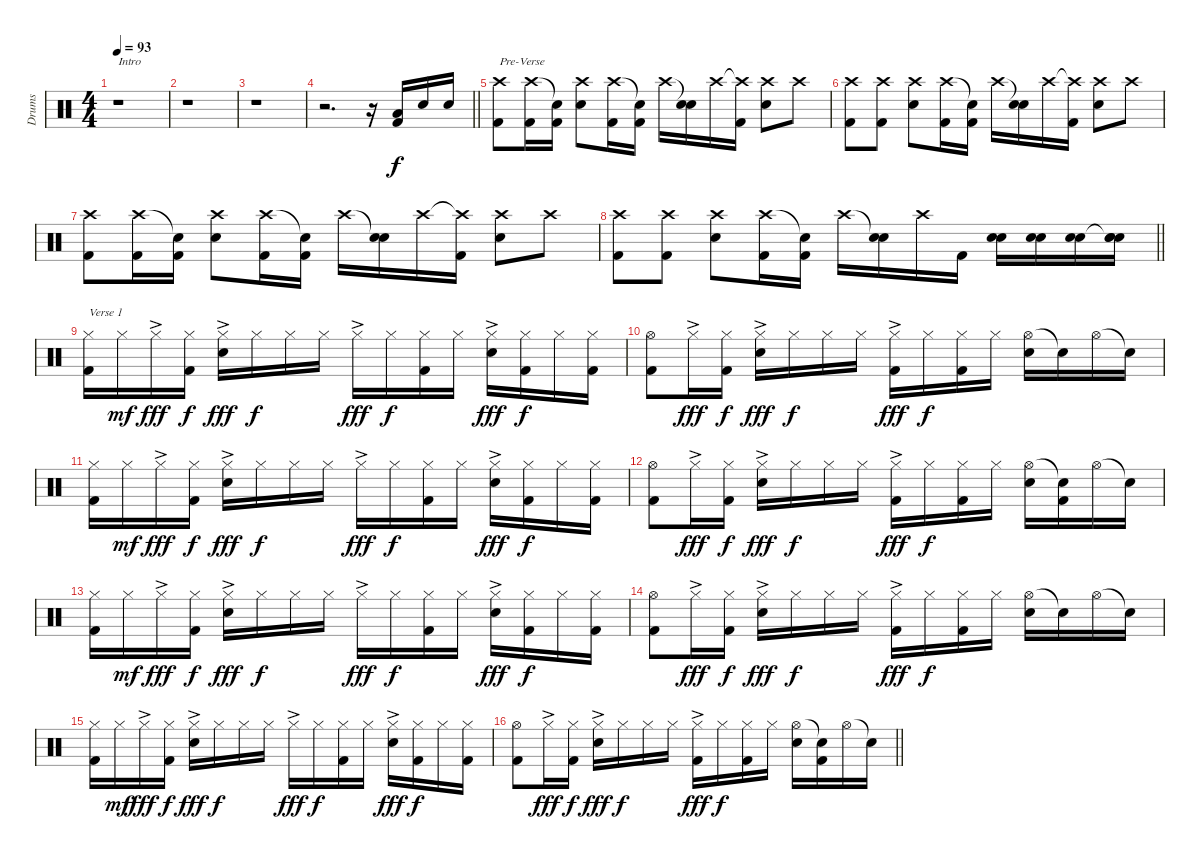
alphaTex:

\track ("Drums" "Drums") {instrument percussion}
\staff {score}
\articulation defaults
\ts (4 4)
\tempo 93
\clef neutral
\ks c
r.1{txt "Intro" dy f} |
r.1 |
r.1 |
\barLineRight lightlight
r.2{d} r.16 ("Low Floor Tom (hit)" "Kick (hit) 2").16 "Electric Snare (hit)".16 "Electric Snare (hit)".16 |
("Crash high (hit)" "Kick (hit) 2").8{txt "Pre-Verse"} ("Crash high (hit)" "Kick (hit) 2").16 ("Snare (hit)"{t} "Kick (hit) 2").16 ("Crash high (hit)" "Electric Snare (hit)").8 ("Crash high (hit)" "Kick (hit) 2").16 ("Snare (hit)"{t} "Kick (hit) 2").16 "Crash high (hit)".16 ("Snare (hit)"{t} "Electric Snare (hit)").16 "Crash high (hit)".16 ("Crash high (hit)"{t} "Kick (hit) 2").16 ("Crash high (hit)" "Electric Snare (hit)").8 "Crash high (hit)".8 |
("Crash high (hit)" "Kick (hit) 2").8 ("Crash high (hit)" "Kick (hit) 2").8 ("Crash high (hit)" "Electric Snare (hit)").8 ("Crash high (hit)" "Kick (hit) 2").16 ("Snare (hit)"{t} "Kick (hit) 2").16 "Crash high (hit)".16 ("Snare (hit)"{t} "Electric Snare (hit)").16 "Crash high (hit)".16 ("Crash high (hit)"{t} "Kick (hit) 2").16 ("Crash high (hit)" "Electric Snare (hit)").8 "Crash high (hit)".8 |
("Crash high (hit)" "Kick (hit) 2").8 ("Crash high (hit)" "Kick (hit) 2").16 ("Snare (hit)"{t} "Kick (hit) 2").16 ("Crash high (hit)" "Electric Snare (hit)").8 ("Crash high (hit)" "Kick (hit) 2").16 ("Snare (hit)"{t} "Kick (hit) 2").16 "Crash high (hit)".16 ("Snare (hit)"{t} "Electric Snare (hit)").16 "Crash high (hit)".16 ("Crash high (hit)"{t} "Kick (hit) 2").16 ("Crash high (hit)" "Electric Snare (hit)").8 "Crash high (hit)".8 |
\barLineRight lightlight
("Crash high (hit)" "Kick (hit) 2").8 ("Crash high (hit)" "Kick (hit) 2").8 ("Crash high (hit)" "Electric Snare (hit)").8 ("Crash high (hit)" "Kick (hit) 2").16 ("Snare (hit)"{t} "Kick (hit) 2").16 "Crash high (hit)".16 ("Snare (hit)"{t} "Electric Snare (hit)").16 "Crash high (hit)".16 "Kick (hit) 2".16 ("Electric Snare (hit)" "Electric Snare (hit)").16 ("Electric Snare (hit)" "Electric Snare (hit)").16 ("Electric Snare (hit)" "Electric Snare (hit)").16 ("Snare (hit)"{t} "Electric Snare (hit)" "Electric Snare (hit)").16 |
("Hi-Hat (closed)" "Kick (hit) 2").16{txt "Verse 1"} "Hi-Hat (closed)".16{dy mf} "Hi-Hat (closed)"{ac}.16{dy fff} ("Hi-Hat (closed)" "Kick (hit) 2").16{dy f} ("Hi-Hat (closed)"{ac} "Electric Snare (hit)").16{dy fff} "Hi-Hat (closed)".16{dy f} "Hi-Hat (closed)".16 "Hi-Hat (closed)".16 "Hi-Hat (closed)"{ac}.16{dy fff} "Hi-Hat (closed)".16{dy f} ("Hi-Hat (closed)" "Kick (hit) 2").16 "Hi-Hat (closed)".16 ("Hi-Hat (closed)"{ac} "Electric Snare (hit)").16{dy fff} ("Hi-Hat (closed)" "Kick (hit) 2").16{dy f} "Hi-Hat (closed)".16 ("Hi-Hat (closed)" "Kick (hit) 2").16 |
("Hi-Hat (open)" "Kick (hit) 2").8 "Hi-Hat (closed)"{ac}.16{dy fff} ("Hi-Hat (closed)" "Kick (hit) 2").16{dy f} ("Hi-Hat (closed)"{ac} "Electric Snare (hit)").16{dy fff} "Hi-Hat (closed)".16{dy f} "Hi-Hat (closed)".16 "Hi-Hat (closed)".16 ("Hi-Hat (closed)"{ac} "Kick (hit) 2").16{dy fff} "Hi-Hat (closed)".16{dy f} ("Hi-Hat (closed)" "Kick (hit) 2").16 "Hi-Hat (closed)".16 ("Hi-Hat (open)" "Electric Snare (hit)").16 "Snare (hit)"{t}.16 "Hi-Hat (open)".16 "Snare (hit)"{t}.16 |
("Hi-Hat (closed)" "Kick (hit) 2").16 "Hi-Hat (closed)".16{dy mf} "Hi-Hat (closed)"{ac}.16{dy fff} ("Hi-Hat (closed)" "Kick (hit) 2").16{dy f} ("Hi-Hat (closed)"{ac} "Electric Snare (hit)").16{dy fff} "Hi-Hat (closed)".16{dy f} "Hi-Hat (closed)".16 "Hi-Hat (closed)".16 "Hi-Hat (closed)"{ac}.16{dy fff} "Hi-Hat (closed)".16{dy f} ("Hi-Hat (closed)" "Kick (hit) 2").16 "Hi-Hat (closed)".16 ("Hi-Hat (closed)"{ac} "Electric Snare (hit)").16{dy fff} ("Hi-Hat (closed)" "Kick (hit) 2").16{dy f} "Hi-Hat (closed)".16 ("Hi-Hat (closed)" "Kick (hit) 2").16 |
("Hi-Hat (open)" "Kick (hit) 2").8 "Hi-Hat (closed)"{ac}.16{dy fff} ("Hi-Hat (closed)" "Kick (hit) 2").16{dy f} ("Hi-Hat (closed)"{ac} "Electric Snare (hit)").16{dy fff} "Hi-Hat (closed)".16{dy f} "Hi-Hat (closed)".16 "Hi-Hat (closed)".16 ("Hi-Hat (closed)"{ac} "Kick (hit) 2").16{dy fff} "Hi-Hat (closed)".16{dy f} ("Hi-Hat (closed)" "Kick (hit) 2").16 "Hi-Hat (closed)".16 ("Hi-Hat (open)" "Electric Snare (hit)").16 ("Snare (hit)"{t} "Kick (hit) 2").16 "Hi-Hat (open)".16 "Snare (hit)"{t}.16 |
("Hi-Hat (closed)" "Kick (hit) 2").16 "Hi-Hat (closed)".16{dy mf} "Hi-Hat (closed)"{ac}.16{dy fff} ("Hi-Hat (closed)" "Kick (hit) 2").16{dy f} ("Hi-Hat (closed)"{ac} "Electric Snare (hit)").16{dy fff} "Hi-Hat (closed)".16{dy f} "Hi-Hat (closed)".16 "Hi-Hat (closed)".16 "Hi-Hat (closed)"{ac}.16{dy fff} "Hi-Hat (closed)".16{dy f} ("Hi-Hat (closed)" "Kick (hit) 2").16 "Hi-Hat (closed)".16 ("Hi-Hat (closed)"{ac} "Electric Snare (hit)").16{dy fff} ("Hi-Hat (closed)" "Kick (hit) 2").16{dy f} "Hi-Hat (closed)".16 ("Hi-Hat (closed)" "Kick (hit) 2").16 |
("Hi-Hat (open)" "Kick (hit) 2").8 "Hi-Hat (closed)"{ac}.16{dy fff} ("Hi-Hat (closed)" "Kick (hit) 2").16{dy f} ("Hi-Hat (closed)"{ac} "Electric Snare (hit)").16{dy fff} "Hi-Hat (closed)".16{dy f} "Hi-Hat (closed)".16 "Hi-Hat (closed)".16 ("Hi-Hat (closed)"{ac} "Kick (hit) 2").16{dy fff} "Hi-Hat (closed)".16{dy f} ("Hi-Hat (closed)" "Kick (hit) 2").16 "Hi-Hat (closed)".16 ("Hi-Hat (open)" "Electric Snare (hit)").16 "Snare (hit)"{t}.16 "Hi-Hat (open)".16 "Snare (hit)"{t}.16 |
("Hi-Hat (closed)" "Kick (hit) 2").16 "Hi-Hat (closed)".16{dy mf} "Hi-Hat (closed)"{ac}.16{dy fff} ("Hi-Hat (closed)" "Kick (hit) 2").16{dy f} ("Hi-Hat (closed)"{ac} "Electric Snare (hit)").16{dy fff} "Hi-Hat (closed)".16{dy f} "Hi-Hat (closed)".16 "Hi-Hat (closed)".16 "Hi-Hat (closed)"{ac}.16{dy fff} "Hi-Hat (closed)".16{dy f} ("Hi-Hat (closed)" "Kick (hit) 2").16 "Hi-Hat (closed)".16 ("Hi-Hat (closed)"{ac} "Electric Snare (hit)").16{dy fff} ("Hi-Hat (closed)" "Kick (hit) 2").16{dy f} "Hi-Hat (closed)".16 ("Hi-Hat (closed)" "Kick (hit) 2").16 |
\barLineRight lightlight
("Hi-Hat (open)" "Kick (hit) 2").8 "Hi-Hat (closed)"{ac}.16{dy fff} ("Hi-Hat (closed)" "Kick (hit) 2").16{dy f} ("Hi-Hat (closed)"{ac} "Electric Snare (hit)").16{dy fff} "Hi-Hat (closed)".16{dy f} "Hi-Hat (closed)".16 "Hi-Hat (closed)".16 ("Hi-Hat (closed)"{ac} "Kick (hit) 2").16{dy fff} "Hi-Hat (closed)".16{dy f} ("Hi-Hat (closed)" "Kick (hit) 2").16 "Hi-Hat (closed)".16 ("Hi-Hat (open)" "Electric Snare (hit)").16 ("Snare (hit)"{t} "Kick (hit) 2").16 "Hi-Hat (open)".16 "Snare (hit)"{t}.16
